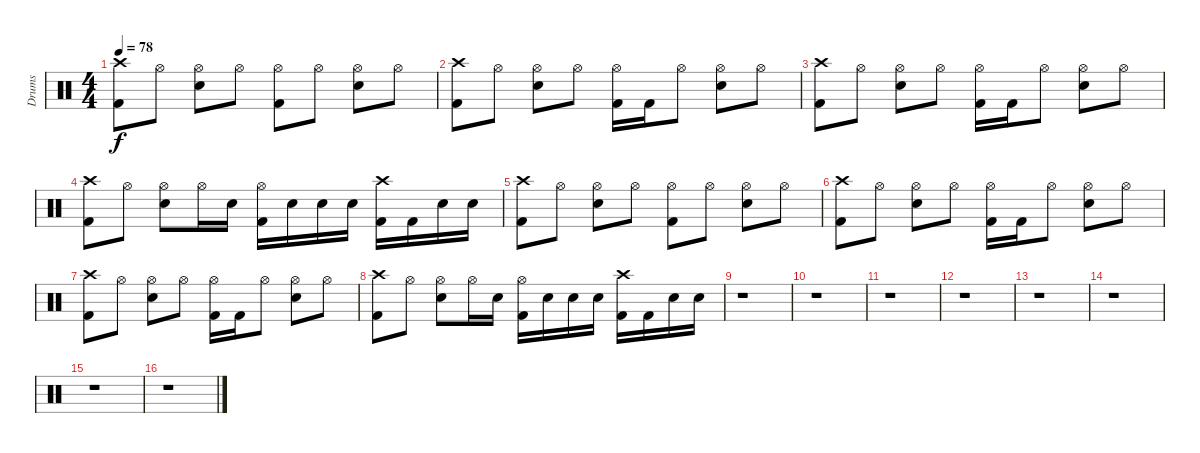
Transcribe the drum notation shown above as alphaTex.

\track ("Drums" "Drums") {instrument percussion}
\staff {score}
\articulation defaults
\ts (4 4)
\tempo 78
\clef neutral
\ks c
("Crash high (hit)" "Kick (hit) 2").8{dy f} "Hi-Hat (open)".8 ("Hi-Hat (open)" "Snare (hit) 2").8 "Hi-Hat (open)".8 ("Hi-Hat (open)" "Kick (hit) 2").8 "Hi-Hat (open)".8 ("Hi-Hat (open)" "Snare (hit) 2").8 "Hi-Hat (open)".8 |
("Crash high (hit)" "Kick (hit) 2").8 "Hi-Hat (open)".8 ("Hi-Hat (open)" "Snare (hit) 2").8 "Hi-Hat (open)".8 ("Hi-Hat (open)" "Kick (hit) 2").16 "Kick (hit) 2".16 "Hi-Hat (open)".8 ("Hi-Hat (open)" "Snare (hit) 2").8 "Hi-Hat (open)".8 |
("Crash high (hit)" "Kick (hit) 2").8 "Hi-Hat (open)".8 ("Hi-Hat (open)" "Snare (hit) 2").8 "Hi-Hat (open)".8 ("Hi-Hat (open)" "Kick (hit) 2").16 "Kick (hit) 2".16 "Hi-Hat (open)".8 ("Hi-Hat (open)" "Snare (hit) 2").8 "Hi-Hat (open)".8 |
("Crash high (hit)" "Kick (hit) 2").8 "Hi-Hat (open)".8 ("Hi-Hat (open)" "Snare (hit) 2").8 "Hi-Hat (open)".16 "Snare (hit) 2".16 ("Hi-Hat (open)" "Kick (hit) 2").16 "Snare (hit) 2".16 "Snare (hit) 2".16 "Snare (hit) 2".16 ("Crash high (hit)" "Kick (hit) 2").16 "Kick (hit) 2".16 "Snare (hit) 2".16 "Snare (hit) 2".16 |
("Crash high (hit)" "Kick (hit) 2").8{volume 0} "Hi-Hat (open)".8 ("Hi-Hat (open)" "Snare (hit) 2").8 "Hi-Hat (open)".8 ("Hi-Hat (open)" "Kick (hit) 2").8 "Hi-Hat (open)".8 ("Hi-Hat (open)" "Snare (hit) 2").8 "Hi-Hat (open)".8 |
("Crash high (hit)" "Kick (hit) 2").8 "Hi-Hat (open)".8 ("Hi-Hat (open)" "Snare (hit) 2").8 "Hi-Hat (open)".8 ("Hi-Hat (open)" "Kick (hit) 2").16 "Kick (hit) 2".16 "Hi-Hat (open)".8 ("Hi-Hat (open)" "Snare (hit) 2").8 "Hi-Hat (open)".8 |
("Crash high (hit)" "Kick (hit) 2").8 "Hi-Hat (open)".8 ("Hi-Hat (open)" "Snare (hit) 2").8 "Hi-Hat (open)".8 ("Hi-Hat (open)" "Kick (hit) 2").16 "Kick (hit) 2".16 "Hi-Hat (open)".8 ("Hi-Hat (open)" "Snare (hit) 2").8 "Hi-Hat (open)".8 |
("Crash high (hit)" "Kick (hit) 2").8 "Hi-Hat (open)".8 ("Hi-Hat (open)" "Snare (hit) 2").8 "Hi-Hat (open)".16 "Snare (hit) 2".16 ("Hi-Hat (open)" "Kick (hit) 2").16 "Snare (hit) 2".16 "Snare (hit) 2".16 "Snare (hit) 2".16 ("Crash high (hit)" "Kick (hit) 2").16 "Kick (hit) 2".16 "Snare (hit) 2".16 "Snare (hit) 2".16 |
r.1 |
r.1 |
r.1 |
r.1 |
r.1 |
r.1 |
r.1 |
r.1
